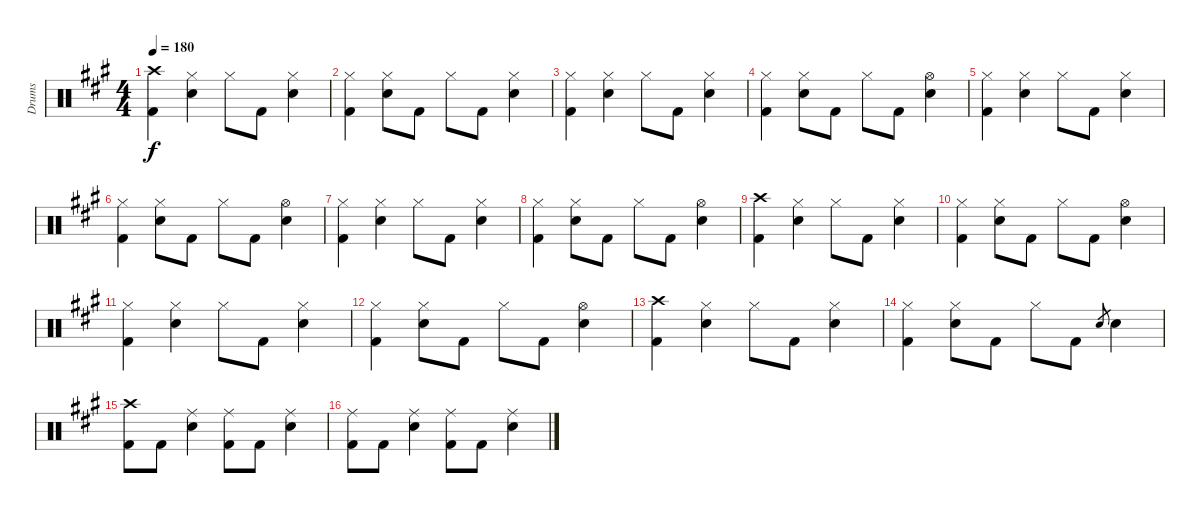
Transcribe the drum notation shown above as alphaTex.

\track ("Drums" "Drums") {instrument percussion}
\staff {score}
\articulation defaults
\ts (4 4)
\tempo 180
\clef neutral
\ks a
("Crash high (hit)" "Kick (hit) 2").4{dy f} ("Hi-Hat (closed)" "Electric Snare (hit)").4 "Hi-Hat (closed)".8 "Kick (hit) 2".8 ("Hi-Hat (closed)" "Electric Snare (hit)").4 |
("Hi-Hat (closed)" "Kick (hit) 2").4 ("Hi-Hat (closed)" "Electric Snare (hit)").8 "Kick (hit) 2".8 "Hi-Hat (closed)".8 "Kick (hit) 2".8 ("Hi-Hat (closed)" "Electric Snare (hit)").4 |
("Hi-Hat (closed)" "Kick (hit) 2").4 ("Hi-Hat (closed)" "Electric Snare (hit)").4 "Hi-Hat (closed)".8 "Kick (hit) 2".8 ("Hi-Hat (closed)" "Electric Snare (hit)").4 |
("Hi-Hat (closed)" "Kick (hit) 2").4 ("Hi-Hat (closed)" "Electric Snare (hit)").8 "Kick (hit) 2".8 "Hi-Hat (closed)".8 "Kick (hit) 2".8 ("Hi-Hat (open)" "Electric Snare (hit)").4 |
("Hi-Hat (closed)" "Kick (hit) 2").4 ("Hi-Hat (closed)" "Electric Snare (hit)").4 "Hi-Hat (closed)".8 "Kick (hit) 2".8 ("Hi-Hat (closed)" "Electric Snare (hit)").4 |
("Hi-Hat (closed)" "Kick (hit) 2").4 ("Hi-Hat (closed)" "Electric Snare (hit)").8 "Kick (hit) 2".8 "Hi-Hat (closed)".8 "Kick (hit) 2".8 ("Hi-Hat (open)" "Electric Snare (hit)").4 |
("Hi-Hat (closed)" "Kick (hit) 2").4 ("Hi-Hat (closed)" "Electric Snare (hit)").4 "Hi-Hat (closed)".8 "Kick (hit) 2".8 ("Hi-Hat (closed)" "Electric Snare (hit)").4 |
("Hi-Hat (closed)" "Kick (hit) 2").4 ("Hi-Hat (closed)" "Electric Snare (hit)").8 "Kick (hit) 2".8 "Hi-Hat (closed)".8 "Kick (hit) 2".8 ("Hi-Hat (open)" "Electric Snare (hit)").4 |
("Crash high (hit)" "Kick (hit) 2").4 ("Hi-Hat (closed)" "Electric Snare (hit)").4 "Hi-Hat (closed)".8 "Kick (hit) 2".8 ("Hi-Hat (closed)" "Electric Snare (hit)").4 |
("Hi-Hat (closed)" "Kick (hit) 2").4 ("Hi-Hat (closed)" "Electric Snare (hit)").8 "Kick (hit) 2".8 "Hi-Hat (closed)".8 "Kick (hit) 2".8 ("Hi-Hat (open)" "Electric Snare (hit)").4 |
("Hi-Hat (closed)" "Kick (hit) 2").4 ("Hi-Hat (closed)" "Electric Snare (hit)").4 "Hi-Hat (closed)".8 "Kick (hit) 2".8 ("Hi-Hat (closed)" "Electric Snare (hit)").4 |
("Hi-Hat (closed)" "Kick (hit) 2").4 ("Hi-Hat (closed)" "Electric Snare (hit)").8 "Kick (hit) 2".8 "Hi-Hat (closed)".8 "Kick (hit) 2".8 ("Hi-Hat (open)" "Electric Snare (hit)").4 |
("Crash high (hit)" "Kick (hit) 2").4 ("Hi-Hat (closed)" "Electric Snare (hit)").4 "Hi-Hat (closed)".8 "Kick (hit) 2".8 ("Hi-Hat (closed)" "Electric Snare (hit)").4 |
("Hi-Hat (closed)" "Kick (hit) 2").4 ("Hi-Hat (closed)" "Electric Snare (hit)").8 "Kick (hit) 2".8 "Hi-Hat (closed)".8 "Kick (hit) 2".8 "Electric Snare (hit)".8{gr} "Electric Snare (hit)".4 |
("Crash high (hit)" "Kick (hit) 2").8 "Kick (hit) 2".8 ("Ride (middle)" "Electric Snare (hit)").4 ("Ride (middle)" "Kick (hit) 2").8 "Kick (hit) 2".8 ("Ride (middle)" "Electric Snare (hit)").4 |
("Ride (middle)" "Kick (hit) 2").8 "Kick (hit) 2".8 ("Ride (middle)" "Electric Snare (hit)").4 ("Ride (middle)" "Kick (hit) 2").8 "Kick (hit) 2".8 ("Ride (middle)" "Electric Snare (hit)").4
